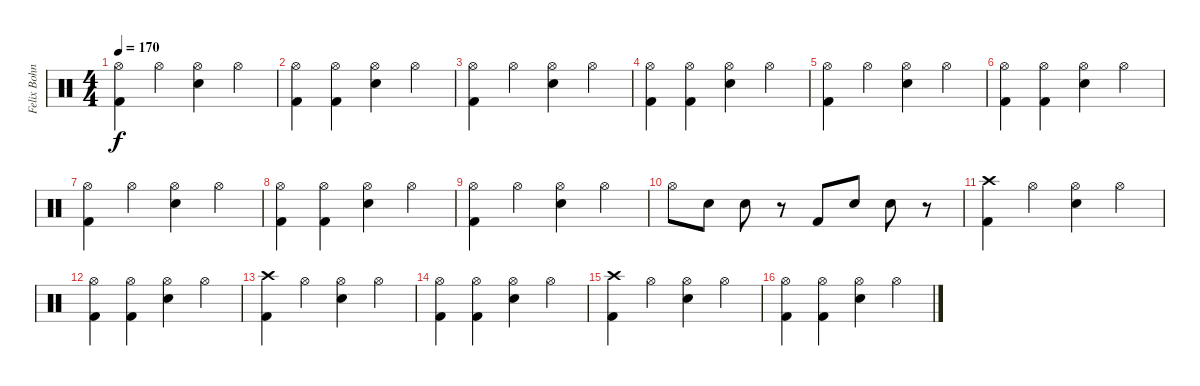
\track ("Felix Bohnke - Drums" "Felix Bohn") {instrument percussion}
\staff {score}
\articulation defaults
\ts (4 4)
\tempo 170
\clef neutral
\ks c
("Hi-Hat (open)" "Kick (hit) 2").4{dy f} "Hi-Hat (open)".4 ("Hi-Hat (open)" "Snare (hit) 2").4 "Hi-Hat (open)".4 |
("Hi-Hat (open)" "Kick (hit) 2").4 ("Hi-Hat (open)" "Kick (hit) 2").4 ("Hi-Hat (open)" "Snare (hit) 2").4 "Hi-Hat (open)".4 |
("Hi-Hat (open)" "Kick (hit) 2").4 "Hi-Hat (open)".4 ("Hi-Hat (open)" "Snare (hit) 2").4 "Hi-Hat (open)".4 |
("Hi-Hat (open)" "Kick (hit) 2").4 ("Hi-Hat (open)" "Kick (hit) 2").4 ("Hi-Hat (open)" "Snare (hit) 2").4 "Hi-Hat (open)".4 |
("Hi-Hat (open)" "Kick (hit) 2").4 "Hi-Hat (open)".4 ("Hi-Hat (open)" "Snare (hit) 2").4 "Hi-Hat (open)".4 |
("Hi-Hat (open)" "Kick (hit) 2").4 ("Hi-Hat (open)" "Kick (hit) 2").4 ("Hi-Hat (open)" "Snare (hit) 2").4 "Hi-Hat (open)".4 |
("Hi-Hat (open)" "Kick (hit) 2").4 "Hi-Hat (open)".4 ("Hi-Hat (open)" "Snare (hit) 2").4 "Hi-Hat (open)".4 |
("Hi-Hat (open)" "Kick (hit) 2").4 ("Hi-Hat (open)" "Kick (hit) 2").4 ("Hi-Hat (open)" "Snare (hit) 2").4 "Hi-Hat (open)".4 |
("Hi-Hat (open)" "Kick (hit) 2").4 "Hi-Hat (open)".4 ("Hi-Hat (open)" "Snare (hit) 2").4 "Hi-Hat (open)".4 |
"Hi-Hat (open)".8 "Snare (hit) 2".8 "Snare (hit) 2".8 r.8 "Kick (hit) 2".8 "Snare (hit) 2".8 "Snare (hit) 2".8 r.8 |
("Crash high (hit)" "Kick (hit) 2").4 "Hi-Hat (open)".4 ("Hi-Hat (open)" "Snare (hit) 2").4 "Hi-Hat (open)".4 |
("Hi-Hat (open)" "Kick (hit) 2").4 ("Hi-Hat (open)" "Kick (hit) 2").4 ("Hi-Hat (open)" "Snare (hit) 2").4 "Hi-Hat (open)".4 |
("Crash high (hit)" "Kick (hit) 2").4 "Hi-Hat (open)".4 ("Hi-Hat (open)" "Snare (hit) 2").4 "Hi-Hat (open)".4 |
("Hi-Hat (open)" "Kick (hit) 2").4 ("Hi-Hat (open)" "Kick (hit) 2").4 ("Hi-Hat (open)" "Snare (hit) 2").4 "Hi-Hat (open)".4 |
("Crash high (hit)" "Kick (hit) 2").4 "Hi-Hat (open)".4 ("Hi-Hat (open)" "Snare (hit) 2").4 "Hi-Hat (open)".4 |
("Hi-Hat (open)" "Kick (hit) 2").4 ("Hi-Hat (open)" "Kick (hit) 2").4 ("Hi-Hat (open)" "Snare (hit) 2").4 "Hi-Hat (open)".4
